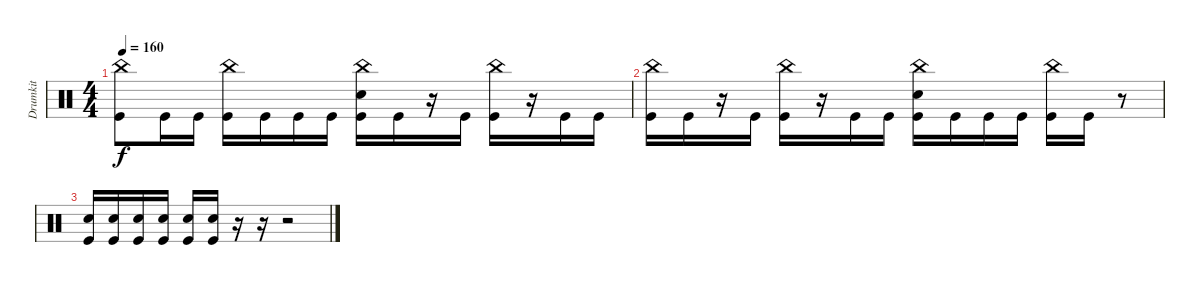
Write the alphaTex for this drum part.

\track ("Drumkit" "Drumkit") {instrument percussion}
\staff {score}
\articulation defaults
\ts (4 4)
\tempo 160
\clef neutral
\ks c
("China (hit)" "Kick (hit)").8{dy f} "Kick (hit)".16 "Kick (hit)".16 ("China (hit)" "Kick (hit)").16 "Kick (hit)".16 "Kick (hit)".16 "Kick (hit)".16 ("Snare (hit) 2" "China (hit)" "Kick (hit)").16 "Kick (hit)".16 r.16 "Kick (hit)".16 ("China (hit)" "Kick (hit)").16 r.16 "Kick (hit)".16 "Kick (hit)".16 |
("China (hit)" "Kick (hit)").16 "Kick (hit)".16 r.16 "Kick (hit)".16 ("China (hit)" "Kick (hit)").16 r.16 "Kick (hit)".16 "Kick (hit)".16 ("Snare (hit) 2" "China (hit)" "Kick (hit)").16 "Kick (hit)".16 "Kick (hit)".16 "Kick (hit)".16 ("China (hit)" "Kick (hit)").16 "Kick (hit)".16 r.8 |
("Snare (hit) 2" "Kick (hit)").16 ("Snare (hit) 2" "Kick (hit)").16 ("Snare (hit) 2" "Kick (hit)").16 ("Snare (hit) 2" "Kick (hit)").16 ("Snare (hit) 2" "Kick (hit)").16 ("Snare (hit) 2" "Kick (hit)").16 r.16 r.16 r.2
